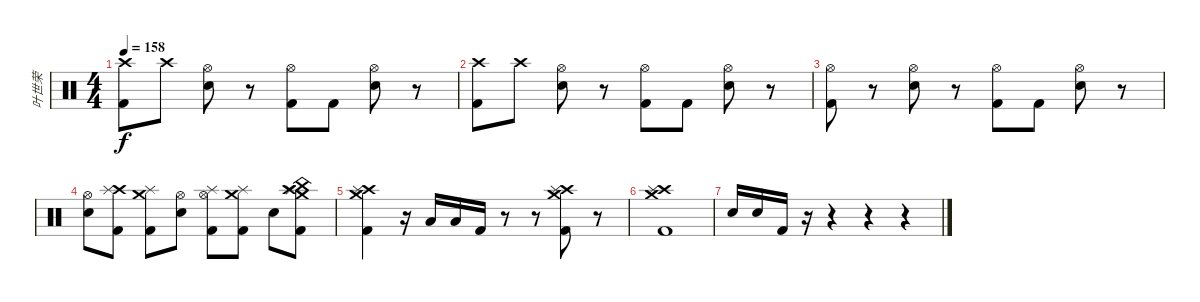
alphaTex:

\track ("叶世荣" "叶世荣") {instrument percussion}
\staff {score}
\articulation defaults
\ts (4 4)
\tempo 158
\clef neutral
\ks c
("Crash high (hit)" "Kick (hit) 2").8{dy f} "Crash high (hit)".8 ("Hi-Hat (open)" "Snare (hit) 2").8 r.8 ("Hi-Hat (open)" "Kick (hit) 2").8 "Kick (hit) 2".8 ("Hi-Hat (open)" "Snare (hit) 2").8 r.8 |
("Crash high (hit)" "Kick (hit) 2").8 "Crash high (hit)".8 ("Hi-Hat (open)" "Snare (hit) 2").8 r.8 ("Hi-Hat (open)" "Kick (hit) 2").8 "Kick (hit) 2".8 ("Hi-Hat (open)" "Snare (hit) 2").8 r.8 |
("Hi-Hat (open)" "Kick (hit) 2").8 r.8 ("Hi-Hat (open)" "Snare (hit) 2").8 r.8 ("Hi-Hat (open)" "Kick (hit) 2").8 "Kick (hit) 2".8 ("Hi-Hat (open)" "Snare (hit) 2").8 r.8 |
("Hi-Hat (open)" "Snare (hit) 2").8 ("Crash high (hit)" "Splash (hit)" "Kick (hit) 2").8 ("Crash medium (hit)" "Splash (hit)" "Kick (hit) 2").8 ("Hi-Hat (open)" "Snare (hit) 2").8 ("Hi-Hat (open)" "Splash (hit)" "Kick (hit) 2").8 ("Crash medium (hit)" "Splash (hit)" "Kick (hit) 2").8 "Snare (hit) 2".8 ("Splash (hit)" "Crash high (hit)" "Crash medium (hit)" "China (hit)" "Kick (hit) 2").8 |
("Crash high (hit)" "Splash (hit)" "Crash medium (hit)" "Kick (hit) 2").4 r.16 "Low Tom (hit)".16 "Low Tom (hit)".16 "Kick (hit) 2".16 r.8 r.8 ("Crash high (hit)" "Splash (hit)" "Crash medium (hit)" "Kick (hit) 2").8 r.8 |
("Crash high (hit)" "Splash (hit)" "Crash medium (hit)" "Kick (hit) 2").1 |
"Snare (hit) 2".16 "Snare (hit) 2".16 "Kick (hit) 2".16 r.16 r.4 r.4 r.4
